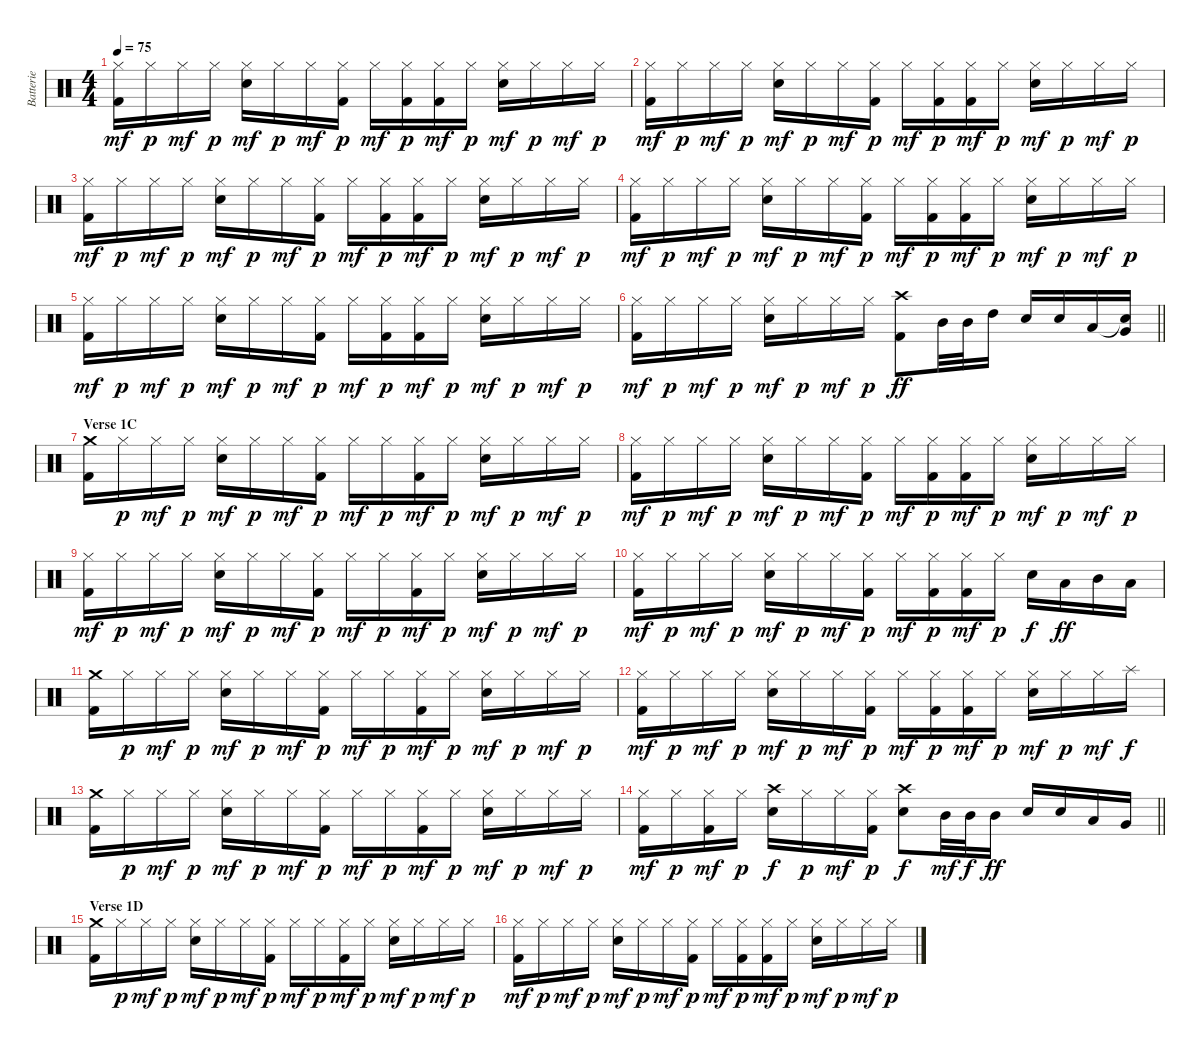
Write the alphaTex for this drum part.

\track ("Batterie" "Batterie") {instrument percussion}
\staff {score}
\articulation defaults
\ts (4 4)
\tempo 75
\clef neutral
\ks c
("Hi-Hat (closed)" "Kick (hit) 2").16{dy mf} "Hi-Hat (closed)".16{dy p} "Hi-Hat (closed)".16{dy mf} "Hi-Hat (closed)".16{dy p} ("Hi-Hat (closed)" "Electric Snare (hit)").16{dy mf} "Hi-Hat (closed)".16{dy p} "Hi-Hat (closed)".16{dy mf} ("Hi-Hat (closed)" "Kick (hit) 2").16{dy p} "Hi-Hat (closed)".16{dy mf} ("Hi-Hat (closed)" "Kick (hit) 2").16{dy p} ("Hi-Hat (closed)" "Kick (hit) 2").16{dy mf} "Hi-Hat (closed)".16{dy p} ("Hi-Hat (closed)" "Electric Snare (hit)").16{dy mf} "Hi-Hat (closed)".16{dy p} "Hi-Hat (closed)".16{dy mf} "Hi-Hat (closed)".16{dy p} |
("Hi-Hat (closed)" "Kick (hit) 2").16{dy mf} "Hi-Hat (closed)".16{dy p} "Hi-Hat (closed)".16{dy mf} "Hi-Hat (closed)".16{dy p} ("Hi-Hat (closed)" "Electric Snare (hit)").16{dy mf} "Hi-Hat (closed)".16{dy p} "Hi-Hat (closed)".16{dy mf} ("Hi-Hat (closed)" "Kick (hit) 2").16{dy p} "Hi-Hat (closed)".16{dy mf} ("Hi-Hat (closed)" "Kick (hit) 2").16{dy p} ("Hi-Hat (closed)" "Kick (hit) 2").16{dy mf} "Hi-Hat (closed)".16{dy p} ("Hi-Hat (closed)" "Electric Snare (hit)").16{dy mf} "Hi-Hat (closed)".16{dy p} "Hi-Hat (closed)".16{dy mf} "Hi-Hat (closed)".16{dy p} |
("Hi-Hat (closed)" "Kick (hit) 2").16{dy mf} "Hi-Hat (closed)".16{dy p} "Hi-Hat (closed)".16{dy mf} "Hi-Hat (closed)".16{dy p} ("Hi-Hat (closed)" "Electric Snare (hit)").16{dy mf} "Hi-Hat (closed)".16{dy p} "Hi-Hat (closed)".16{dy mf} ("Hi-Hat (closed)" "Kick (hit) 2").16{dy p} "Hi-Hat (closed)".16{dy mf} ("Hi-Hat (closed)" "Kick (hit) 2").16{dy p} ("Hi-Hat (closed)" "Kick (hit) 2").16{dy mf} "Hi-Hat (closed)".16{dy p} ("Hi-Hat (closed)" "Electric Snare (hit)").16{dy mf} "Hi-Hat (closed)".16{dy p} "Hi-Hat (closed)".16{dy mf} "Hi-Hat (closed)".16{dy p} |
("Hi-Hat (closed)" "Kick (hit) 2").16{dy mf} "Hi-Hat (closed)".16{dy p} "Hi-Hat (closed)".16{dy mf} "Hi-Hat (closed)".16{dy p} ("Hi-Hat (closed)" "Electric Snare (hit)").16{dy mf} "Hi-Hat (closed)".16{dy p} "Hi-Hat (closed)".16{dy mf} ("Hi-Hat (closed)" "Kick (hit) 2").16{dy p} "Hi-Hat (closed)".16{dy mf} ("Hi-Hat (closed)" "Kick (hit) 2").16{dy p} ("Hi-Hat (closed)" "Kick (hit) 2").16{dy mf} "Hi-Hat (closed)".16{dy p} ("Hi-Hat (closed)" "Electric Snare (hit)").16{dy mf} "Hi-Hat (closed)".16{dy p} "Hi-Hat (closed)".16{dy mf} "Hi-Hat (closed)".16{dy p} |
("Hi-Hat (closed)" "Kick (hit) 2").16{dy mf} "Hi-Hat (closed)".16{dy p} "Hi-Hat (closed)".16{dy mf} "Hi-Hat (closed)".16{dy p} ("Hi-Hat (closed)" "Electric Snare (hit)").16{dy mf} "Hi-Hat (closed)".16{dy p} "Hi-Hat (closed)".16{dy mf} ("Hi-Hat (closed)" "Kick (hit) 2").16{dy p} "Hi-Hat (closed)".16{dy mf} ("Hi-Hat (closed)" "Kick (hit) 2").16{dy p} ("Hi-Hat (closed)" "Kick (hit) 2").16{dy mf} "Hi-Hat (closed)".16{dy p} ("Hi-Hat (closed)" "Electric Snare (hit)").16{dy mf} "Hi-Hat (closed)".16{dy p} "Hi-Hat (closed)".16{dy mf} "Hi-Hat (closed)".16{dy p} |
\barLineRight lightlight
("Hi-Hat (closed)" "Kick (hit) 2").16{dy mf} "Hi-Hat (closed)".16{dy p} "Hi-Hat (closed)".16{dy mf} "Hi-Hat (closed)".16{dy p} ("Hi-Hat (closed)" "Electric Snare (hit)").16{dy mf} "Hi-Hat (closed)".16{dy p} "Hi-Hat (closed)".16{dy mf} "Hi-Hat (closed)".16{dy p} ("Crash high (hit)" "Kick (hit) 2").8{dy ff} "Mid Tom (hit)".32 "Mid Tom (hit)".32 "High Tom (hit)".16 "Electric Snare (hit)".16 "Electric Snare (hit)".16 "Low Tom (hit)".16 ("Snare (hit)"{t} "Very Low Tom (hit)").16 |
\section ("" "Verse 1C")
("Crash medium (hit)" "Kick (hit) 2").16 "Hi-Hat (closed)".16{dy p} "Hi-Hat (closed)".16{dy mf} "Hi-Hat (closed)".16{dy p} ("Hi-Hat (closed)" "Electric Snare (hit)").16{dy mf} "Hi-Hat (closed)".16{dy p} "Hi-Hat (closed)".16{dy mf} ("Hi-Hat (closed)" "Kick (hit) 2").16{dy p} "Hi-Hat (closed)".16{dy mf} "Hi-Hat (closed)".16{dy p} ("Hi-Hat (closed)" "Kick (hit) 2").16{dy mf} "Hi-Hat (closed)".16{dy p} ("Hi-Hat (closed)" "Electric Snare (hit)").16{dy mf} "Hi-Hat (closed)".16{dy p} "Hi-Hat (closed)".16{dy mf} "Hi-Hat (closed)".16{dy p} |
("Hi-Hat (closed)" "Kick (hit) 2").16{dy mf} "Hi-Hat (closed)".16{dy p} "Hi-Hat (closed)".16{dy mf} "Hi-Hat (closed)".16{dy p} ("Hi-Hat (closed)" "Electric Snare (hit)").16{dy mf} "Hi-Hat (closed)".16{dy p} "Hi-Hat (closed)".16{dy mf} ("Hi-Hat (closed)" "Kick (hit) 2").16{dy p} "Hi-Hat (closed)".16{dy mf} ("Hi-Hat (closed)" "Kick (hit) 2").16{dy p} ("Hi-Hat (closed)" "Kick (hit) 2").16{dy mf} "Hi-Hat (closed)".16{dy p} ("Hi-Hat (closed)" "Electric Snare (hit)").16{dy mf} "Hi-Hat (closed)".16{dy p} "Hi-Hat (closed)".16{dy mf} "Hi-Hat (closed)".16{dy p} |
("Hi-Hat (closed)" "Kick (hit) 2").16{dy mf} "Hi-Hat (closed)".16{dy p} "Hi-Hat (closed)".16{dy mf} "Hi-Hat (closed)".16{dy p} ("Hi-Hat (closed)" "Electric Snare (hit)").16{dy mf} "Hi-Hat (closed)".16{dy p} "Hi-Hat (closed)".16{dy mf} ("Hi-Hat (closed)" "Kick (hit) 2").16{dy p} "Hi-Hat (closed)".16{dy mf} "Hi-Hat (closed)".16{dy p} ("Hi-Hat (closed)" "Kick (hit) 2").16{dy mf} "Hi-Hat (closed)".16{dy p} ("Hi-Hat (closed)" "Electric Snare (hit)").16{dy mf} "Hi-Hat (closed)".16{dy p} "Hi-Hat (closed)".16{dy mf} "Hi-Hat (closed)".16{dy p} |
("Hi-Hat (closed)" "Kick (hit) 2").16{dy mf} "Hi-Hat (closed)".16{dy p} "Hi-Hat (closed)".16{dy mf} "Hi-Hat (closed)".16{dy p} ("Hi-Hat (closed)" "Electric Snare (hit)").16{dy mf} "Hi-Hat (closed)".16{dy p} "Hi-Hat (closed)".16{dy mf} ("Hi-Hat (closed)" "Kick (hit) 2").16{dy p} "Hi-Hat (closed)".16{dy mf} ("Hi-Hat (closed)" "Kick (hit) 2").16{dy p} ("Hi-Hat (closed)" "Kick (hit) 2").16{dy mf} "Hi-Hat (closed)".16{dy p} "Electric Snare (hit)".16{dy f} "Low Tom (hit)".16{dy ff} "Mid Tom (hit)".16 "Low Tom (hit)".16 |
("Crash medium (hit)" "Kick (hit) 2").16 "Hi-Hat (closed)".16{dy p} "Hi-Hat (closed)".16{dy mf} "Hi-Hat (closed)".16{dy p} ("Hi-Hat (closed)" "Electric Snare (hit)").16{dy mf} "Hi-Hat (closed)".16{dy p} "Hi-Hat (closed)".16{dy mf} ("Hi-Hat (closed)" "Kick (hit) 2").16{dy p} "Hi-Hat (closed)".16{dy mf} "Hi-Hat (closed)".16{dy p} ("Hi-Hat (closed)" "Kick (hit) 2").16{dy mf} "Hi-Hat (closed)".16{dy p} ("Hi-Hat (closed)" "Electric Snare (hit)").16{dy mf} "Hi-Hat (closed)".16{dy p} "Hi-Hat (closed)".16{dy mf} "Hi-Hat (closed)".16{dy p} |
("Hi-Hat (closed)" "Kick (hit) 2").16{dy mf} "Hi-Hat (closed)".16{dy p} "Hi-Hat (closed)".16{dy mf} "Hi-Hat (closed)".16{dy p} ("Hi-Hat (closed)" "Electric Snare (hit)").16{dy mf} "Hi-Hat (closed)".16{dy p} "Hi-Hat (closed)".16{dy mf} ("Hi-Hat (closed)" "Kick (hit) 2").16{dy p} "Hi-Hat (closed)".16{dy mf} ("Hi-Hat (closed)" "Kick (hit) 2").16{dy p} ("Hi-Hat (closed)" "Kick (hit) 2").16{dy mf} "Hi-Hat (closed)".16{dy p} ("Hi-Hat (closed)" "Electric Snare (hit)").16{dy mf} "Hi-Hat (closed)".16{dy p} "Hi-Hat (closed)".16{dy mf} "Splash (hit)".16{dy f} |
("Crash medium (hit)" "Kick (hit) 2").16 "Hi-Hat (closed)".16{dy p} "Hi-Hat (closed)".16{dy mf} "Hi-Hat (closed)".16{dy p} ("Hi-Hat (closed)" "Electric Snare (hit)").16{dy mf} "Hi-Hat (closed)".16{dy p} "Hi-Hat (closed)".16{dy mf} ("Hi-Hat (closed)" "Kick (hit) 2").16{dy p} "Hi-Hat (closed)".16{dy mf} "Hi-Hat (closed)".16{dy p} ("Hi-Hat (closed)" "Kick (hit) 2").16{dy mf} "Hi-Hat (closed)".16{dy p} ("Hi-Hat (closed)" "Electric Snare (hit)").16{dy mf} "Hi-Hat (closed)".16{dy p} "Hi-Hat (closed)".16{dy mf} "Hi-Hat (closed)".16{dy p} |
\barLineRight lightlight
("Hi-Hat (closed)" "Kick (hit) 2").16{dy mf} "Hi-Hat (closed)".16{dy p} ("Hi-Hat (closed)" "Kick (hit) 2").16{dy mf} "Hi-Hat (closed)".16{dy p} ("Crash high (hit)" "Electric Snare (hit)").16{dy f} "Hi-Hat (closed)".16{dy p} "Hi-Hat (closed)".16{dy mf} ("Hi-Hat (closed)" "Kick (hit) 2").16{dy p} ("Crash high (hit)" "Electric Snare (hit)").8{dy f} "Mid Tom (hit)".32{dy mf} "Mid Tom (hit)".32{dy f} "Mid Tom (hit)".16{dy ff} "Electric Snare (hit)".16 "Electric Snare (hit)".16 "Low Tom (hit)".16 "Very Low Tom (hit)".16 |
\section ("" "Verse 1D")
("Crash medium (hit)" "Kick (hit) 2").16 "Hi-Hat (closed)".16{dy p} "Hi-Hat (closed)".16{dy mf} "Hi-Hat (closed)".16{dy p} ("Hi-Hat (closed)" "Electric Snare (hit)").16{dy mf} "Hi-Hat (closed)".16{dy p} "Hi-Hat (closed)".16{dy mf} ("Hi-Hat (closed)" "Kick (hit) 2").16{dy p} "Hi-Hat (closed)".16{dy mf} "Hi-Hat (closed)".16{dy p} ("Hi-Hat (closed)" "Kick (hit) 2").16{dy mf} "Hi-Hat (closed)".16{dy p} ("Hi-Hat (closed)" "Electric Snare (hit)").16{dy mf} "Hi-Hat (closed)".16{dy p} "Hi-Hat (closed)".16{dy mf} "Hi-Hat (closed)".16{dy p} |
("Hi-Hat (closed)" "Kick (hit) 2").16{dy mf} "Hi-Hat (closed)".16{dy p} "Hi-Hat (closed)".16{dy mf} "Hi-Hat (closed)".16{dy p} ("Hi-Hat (closed)" "Electric Snare (hit)").16{dy mf} "Hi-Hat (closed)".16{dy p} "Hi-Hat (closed)".16{dy mf} ("Hi-Hat (closed)" "Kick (hit) 2").16{dy p} "Hi-Hat (closed)".16{dy mf} ("Hi-Hat (closed)" "Kick (hit) 2").16{dy p} ("Hi-Hat (closed)" "Kick (hit) 2").16{dy mf} "Hi-Hat (closed)".16{dy p} ("Hi-Hat (closed)" "Electric Snare (hit)").16{dy mf} "Hi-Hat (closed)".16{dy p} "Hi-Hat (closed)".16{dy mf} "Hi-Hat (closed)".16{dy p}
